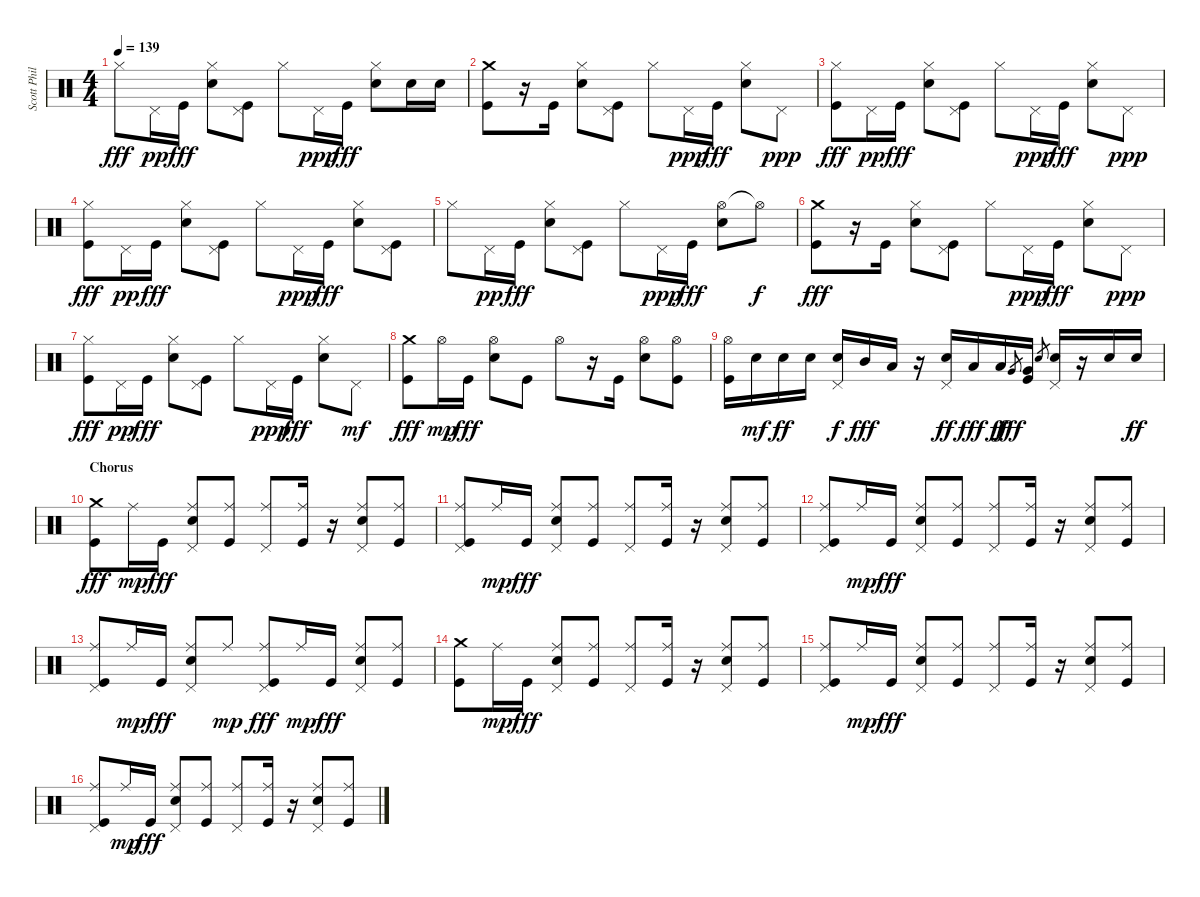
\track ("Scott Phillips - Drums" "Scott Phil") {instrument percussion}
\staff {score}
\articulation defaults
\ts (4 4)
\tempo 139
\clef neutral
\ks c "Hi-Hat (closed)".8{dy fff} "Pedal Hi-Hat (hit)".16{dy pp} "Kick (hit)".16{dy fff}
("Hi-Hat (closed)" "Electric Snare (hit)").8 ("Pedal Hi-Hat (hit)" "Kick (hit)").8 "Hi-Hat (closed)".8 "Pedal Hi-Hat (hit)".16{dy ppp} "Kick (hit)".16{dy fff} ("Hi-Hat (closed)" "Electric Snare (hit)").8 "Electric Snare (hit)".16 "Electric Snare (hit)".16 |
("Crash medium (hit)" "Kick (hit)").8 r.16 "Kick (hit)".16 ("Hi-Hat (closed)" "Electric Snare (hit)").8 ("Pedal Hi-Hat (hit)" "Kick (hit)").8 "Hi-Hat (closed)".8 "Pedal Hi-Hat (hit)".16{dy ppp} "Kick (hit)".16{dy fff} ("Hi-Hat (closed)" "Electric Snare (hit)").8 "Pedal Hi-Hat (hit)".8{dy ppp} |
("Hi-Hat (closed)" "Kick (hit)").8{dy fff} "Pedal Hi-Hat (hit)".16{dy pp} "Kick (hit)".16{dy fff} ("Hi-Hat (closed)" "Electric Snare (hit)").8 ("Pedal Hi-Hat (hit)" "Kick (hit)").8 "Hi-Hat (closed)".8 "Pedal Hi-Hat (hit)".16{dy ppp} "Kick (hit)".16{dy fff} ("Hi-Hat (closed)" "Electric Snare (hit)").8 "Pedal Hi-Hat (hit)".8{dy ppp} |
("Hi-Hat (closed)" "Kick (hit)").8{dy fff} "Pedal Hi-Hat (hit)".16{dy pp} "Kick (hit)".16{dy fff} ("Hi-Hat (closed)" "Electric Snare (hit)").8 ("Pedal Hi-Hat (hit)" "Kick (hit)").8 "Hi-Hat (closed)".8 "Pedal Hi-Hat (hit)".16{dy ppp} "Kick (hit)".16{dy fff} ("Hi-Hat (closed)" "Electric Snare (hit)").8 ("Pedal Hi-Hat (hit)" "Kick (hit)").8 |
"Hi-Hat (closed)".8 "Pedal Hi-Hat (hit)".16{dy pp} "Kick (hit)".16{dy fff} ("Hi-Hat (closed)" "Electric Snare (hit)").8 ("Pedal Hi-Hat (hit)" "Kick (hit)").8 "Hi-Hat (closed)".8 "Pedal Hi-Hat (hit)".16{dy ppp} "Kick (hit)".16{dy fff} ("Hi-Hat (open)" "Electric Snare (hit)").8 "Hi-Hat (open)"{t}.8{dy f} |
("Crash medium (hit)" "Kick (hit)").8{dy fff} r.16 "Kick (hit)".16 ("Hi-Hat (closed)" "Electric Snare (hit)").8 ("Pedal Hi-Hat (hit)" "Kick (hit)").8 "Hi-Hat (closed)".8 "Pedal Hi-Hat (hit)".16{dy ppp} "Kick (hit)".16{dy fff} ("Hi-Hat (closed)" "Electric Snare (hit)").8 "Pedal Hi-Hat (hit)".8{dy ppp} |
("Hi-Hat (closed)" "Kick (hit)").8{dy fff} "Pedal Hi-Hat (hit)".16{dy pp} "Kick (hit)".16{dy fff} ("Hi-Hat (closed)" "Electric Snare (hit)").8 ("Pedal Hi-Hat (hit)" "Kick (hit)").8 "Hi-Hat (closed)".8 "Pedal Hi-Hat (hit)".16{dy ppp} "Kick (hit)".16{dy fff} ("Hi-Hat (closed)" "Electric Snare (hit)").8 "Pedal Hi-Hat (hit)".8{dy mf} |
("Crash medium (hit)" "Kick (hit)").8{dy fff} "Hi-Hat (open)".16{dy mp} "Kick (hit)".16{dy fff} ("Hi-Hat (open)" "Electric Snare (hit)").8 "Kick (hit)".8 "Hi-Hat (open)".8 r.16 "Kick (hit)".16 ("Hi-Hat (open)" "Electric Snare (hit)").8 ("Hi-Hat (open)" "Kick (hit)").8 |
("Hi-Hat (open)" "Kick (hit)").16 "Electric Snare (hit)".16{dy mf} "Electric Snare (hit)".16{dy ff} "Electric Snare (hit)".16 ("Pedal Hi-Hat (hit)" "Electric Snare (hit)").16{dy f} "Mid Tom (hit)".16{dy fff} "Low Tom (hit)".16 r.16 ("Pedal Hi-Hat (hit)" "Electric Snare (hit)").16{dy ff} "Low Tom (hit)".16{dy fff} "Low Tom (hit)".16{dy ff} "Very Low Tom (hit)".8{gr dy fff} ("Very Low Tom (hit)" "Kick (hit)").16 "Electric Snare (hit)".8{gr} ("Pedal Hi-Hat (hit)" "Electric Snare (hit)").16 r.16 "Electric Snare (hit)".16 "Electric Snare (hit)".16{dy ff} |
\section ("" "Chorus")
("Crash medium (hit)" "Kick (hit)").8{dy fff} "Ride (middle)".16{dy mp} "Kick (hit)".16{dy fff} ("Pedal Hi-Hat (hit)" "Ride (middle)" "Electric Snare (hit)").8 ("Ride (middle)" "Kick (hit)").8 ("Pedal Hi-Hat (hit)" "Ride (middle)").8 ("Ride (middle)" "Kick (hit)").16 r.16 ("Pedal Hi-Hat (hit)" "Ride (middle)" "Electric Snare (hit)").8 ("Ride (middle)" "Kick (hit)").8 |
("Pedal Hi-Hat (hit)" "Ride (middle)" "Kick (hit)").8 "Ride (middle)".16{dy mp} "Kick (hit)".16{dy fff} ("Pedal Hi-Hat (hit)" "Ride (middle)" "Electric Snare (hit)").8 ("Ride (middle)" "Kick (hit)").8 ("Pedal Hi-Hat (hit)" "Ride (middle)").8 ("Ride (middle)" "Kick (hit)").16 r.16 ("Pedal Hi-Hat (hit)" "Ride (middle)" "Electric Snare (hit)").8 ("Ride (middle)" "Kick (hit)").8 |
("Pedal Hi-Hat (hit)" "Ride (middle)" "Kick (hit)").8 "Ride (middle)".16{dy mp} "Kick (hit)".16{dy fff} ("Pedal Hi-Hat (hit)" "Ride (middle)" "Electric Snare (hit)").8 ("Ride (middle)" "Kick (hit)").8 ("Pedal Hi-Hat (hit)" "Ride (middle)").8 ("Ride (middle)" "Kick (hit)").16 r.16 ("Pedal Hi-Hat (hit)" "Ride (middle)" "Electric Snare (hit)").8 ("Ride (middle)" "Kick (hit)").8 |
("Pedal Hi-Hat (hit)" "Ride (middle)" "Kick (hit)").8 "Ride (middle)".16{dy mp} "Kick (hit)".16{dy fff} ("Pedal Hi-Hat (hit)" "Ride (middle)" "Electric Snare (hit)").8 "Ride (middle)".8{dy mp} ("Pedal Hi-Hat (hit)" "Ride (middle)" "Kick (hit)").8{dy fff} "Ride (middle)".16{dy mp} "Kick (hit)".16{dy fff} ("Pedal Hi-Hat (hit)" "Ride (middle)" "Electric Snare (hit)").8 ("Ride (middle)" "Kick (hit)").8 |
("Crash medium (hit)" "Kick (hit)").8 "Ride (middle)".16{dy mp} "Kick (hit)".16{dy fff} ("Pedal Hi-Hat (hit)" "Ride (middle)" "Electric Snare (hit)").8 ("Ride (middle)" "Kick (hit)").8 ("Pedal Hi-Hat (hit)" "Ride (middle)").8 ("Ride (middle)" "Kick (hit)").16 r.16 ("Pedal Hi-Hat (hit)" "Ride (middle)" "Electric Snare (hit)").8 ("Ride (middle)" "Kick (hit)").8 |
("Pedal Hi-Hat (hit)" "Ride (middle)" "Kick (hit)").8 "Ride (middle)".16{dy mp} "Kick (hit)".16{dy fff} ("Pedal Hi-Hat (hit)" "Ride (middle)" "Electric Snare (hit)").8 ("Ride (middle)" "Kick (hit)").8 ("Pedal Hi-Hat (hit)" "Ride (middle)").8 ("Ride (middle)" "Kick (hit)").16 r.16 ("Pedal Hi-Hat (hit)" "Ride (middle)" "Electric Snare (hit)").8 ("Ride (middle)" "Kick (hit)").8 |
("Pedal Hi-Hat (hit)" "Ride (middle)" "Kick (hit)").8 "Ride (middle)".16{dy mp} "Kick (hit)".16{dy fff} ("Pedal Hi-Hat (hit)" "Ride (middle)" "Electric Snare (hit)").8 ("Ride (middle)" "Kick (hit)").8 ("Pedal Hi-Hat (hit)" "Ride (middle)").8 ("Ride (middle)" "Kick (hit)").16 r.16 ("Pedal Hi-Hat (hit)" "Ride (middle)" "Electric Snare (hit)").8 ("Ride (middle)" "Kick (hit)").8
